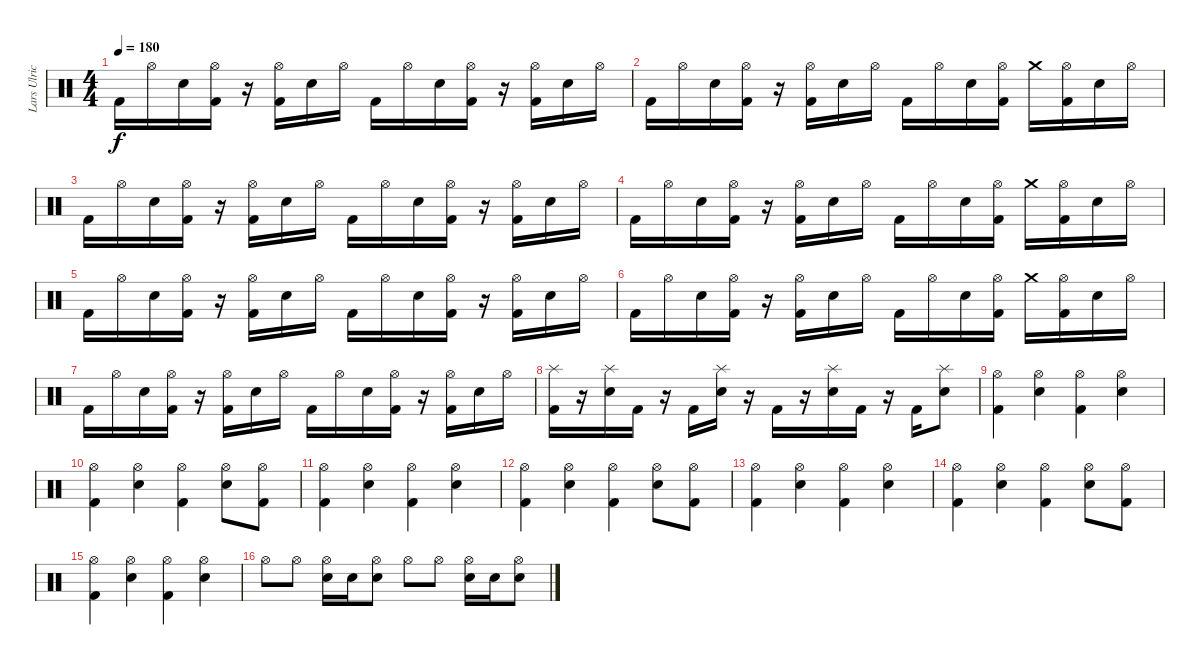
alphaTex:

\track ("Lars Ulrich" "Lars Ulric") {instrument percussion}
\staff {score}
\articulation defaults
\ts (4 4)
\tempo 180
\clef neutral
\ks c "Kick (hit) 2".16{dy f} "Hi-Hat (open)".16 "Electric Snare (hit)".16
("Hi-Hat (open)" "Kick (hit) 2").16 r.16 ("Hi-Hat (open)" "Kick (hit) 2").16 "Electric Snare (hit)".16 "Hi-Hat (open)".16 "Kick (hit) 2".16 "Hi-Hat (open)".16 "Electric Snare (hit)".16 ("Hi-Hat (open)" "Kick (hit) 2").16 r.16 ("Hi-Hat (open)" "Kick (hit) 2").16 "Electric Snare (hit)".16 "Hi-Hat (open)".16 |
"Kick (hit) 2".16 "Hi-Hat (open)".16 "Electric Snare (hit)".16 ("Hi-Hat (open)" "Kick (hit) 2").16 r.16 ("Hi-Hat (open)" "Kick (hit) 2").16 "Electric Snare (hit)".16 "Hi-Hat (open)".16 "Kick (hit) 2".16 "Hi-Hat (open)".16 "Electric Snare (hit)".16 ("Hi-Hat (open)" "Kick (hit) 2").16 "Crash medium (hit)".16 ("Hi-Hat (open)" "Kick (hit) 2").16 "Electric Snare (hit)".16 "Hi-Hat (open)".16 |
"Kick (hit) 2".16 "Hi-Hat (open)".16 "Electric Snare (hit)".16 ("Hi-Hat (open)" "Kick (hit) 2").16 r.16 ("Hi-Hat (open)" "Kick (hit) 2").16 "Electric Snare (hit)".16 "Hi-Hat (open)".16 "Kick (hit) 2".16 "Hi-Hat (open)".16 "Electric Snare (hit)".16 ("Hi-Hat (open)" "Kick (hit) 2").16 r.16 ("Hi-Hat (open)" "Kick (hit) 2").16 "Electric Snare (hit)".16 "Hi-Hat (open)".16 |
"Kick (hit) 2".16 "Hi-Hat (open)".16 "Electric Snare (hit)".16 ("Hi-Hat (open)" "Kick (hit) 2").16 r.16 ("Hi-Hat (open)" "Kick (hit) 2").16 "Electric Snare (hit)".16 "Hi-Hat (open)".16 "Kick (hit) 2".16 "Hi-Hat (open)".16 "Electric Snare (hit)".16 ("Hi-Hat (open)" "Kick (hit) 2").16 "Crash medium (hit)".16 ("Hi-Hat (open)" "Kick (hit) 2").16 "Electric Snare (hit)".16 "Hi-Hat (open)".16 |
"Kick (hit) 2".16 "Hi-Hat (open)".16 "Electric Snare (hit)".16 ("Hi-Hat (open)" "Kick (hit) 2").16 r.16 ("Hi-Hat (open)" "Kick (hit) 2").16 "Electric Snare (hit)".16 "Hi-Hat (open)".16 "Kick (hit) 2".16 "Hi-Hat (open)".16 "Electric Snare (hit)".16 ("Hi-Hat (open)" "Kick (hit) 2").16 r.16 ("Hi-Hat (open)" "Kick (hit) 2").16 "Electric Snare (hit)".16 "Hi-Hat (open)".16 |
"Kick (hit) 2".16 "Hi-Hat (open)".16 "Electric Snare (hit)".16 ("Hi-Hat (open)" "Kick (hit) 2").16 r.16 ("Hi-Hat (open)" "Kick (hit) 2").16 "Electric Snare (hit)".16 "Hi-Hat (open)".16 "Kick (hit) 2".16 "Hi-Hat (open)".16 "Electric Snare (hit)".16 ("Hi-Hat (open)" "Kick (hit) 2").16 "Crash medium (hit)".16 ("Hi-Hat (open)" "Kick (hit) 2").16 "Electric Snare (hit)".16 "Hi-Hat (open)".16 |
"Kick (hit) 2".16 "Hi-Hat (open)".16 "Electric Snare (hit)".16 ("Hi-Hat (open)" "Kick (hit) 2").16 r.16 ("Hi-Hat (open)" "Kick (hit) 2").16 "Electric Snare (hit)".16 "Hi-Hat (open)".16 "Kick (hit) 2".16 "Hi-Hat (open)".16 "Electric Snare (hit)".16 ("Hi-Hat (open)" "Kick (hit) 2").16 r.16 ("Hi-Hat (open)" "Kick (hit) 2").16 "Electric Snare (hit)".16 "Hi-Hat (open)".16 |
("Splash (hit)" "Kick (hit) 2").16 r.16 ("Splash (hit)" "Electric Snare (hit)").16 "Kick (hit) 2".16 r.16 "Kick (hit) 2".16 ("Splash (hit)" "Electric Snare (hit)").16 r.16 "Kick (hit) 2".16 r.16 ("Splash (hit)" "Electric Snare (hit)").16 "Kick (hit) 2".16 r.16 "Kick (hit) 2".16 ("Splash (hit)" "Electric Snare (hit)").8 |
("Hi-Hat (open)" "Kick (hit) 2").4 ("Hi-Hat (open)" "Electric Snare (hit)").4 ("Hi-Hat (open)" "Kick (hit) 2").4 ("Hi-Hat (open)" "Electric Snare (hit)").4 |
("Hi-Hat (open)" "Kick (hit) 2").4 ("Hi-Hat (open)" "Electric Snare (hit)").4 ("Hi-Hat (open)" "Kick (hit) 2").4 ("Hi-Hat (open)" "Electric Snare (hit)").8 ("Hi-Hat (open)" "Kick (hit) 2").8 |
("Hi-Hat (open)" "Kick (hit) 2").4 ("Hi-Hat (open)" "Electric Snare (hit)").4 ("Hi-Hat (open)" "Kick (hit) 2").4 ("Hi-Hat (open)" "Electric Snare (hit)").4 |
("Hi-Hat (open)" "Kick (hit) 2").4 ("Hi-Hat (open)" "Electric Snare (hit)").4 ("Hi-Hat (open)" "Kick (hit) 2").4 ("Hi-Hat (open)" "Electric Snare (hit)").8 ("Hi-Hat (open)" "Kick (hit) 2").8 |
("Hi-Hat (open)" "Kick (hit) 2").4 ("Hi-Hat (open)" "Electric Snare (hit)").4 ("Hi-Hat (open)" "Kick (hit) 2").4 ("Hi-Hat (open)" "Electric Snare (hit)").4 |
("Hi-Hat (open)" "Kick (hit) 2").4 ("Hi-Hat (open)" "Electric Snare (hit)").4 ("Hi-Hat (open)" "Kick (hit) 2").4 ("Hi-Hat (open)" "Electric Snare (hit)").8 ("Hi-Hat (open)" "Kick (hit) 2").8 |
("Hi-Hat (open)" "Kick (hit) 2").4 ("Hi-Hat (open)" "Electric Snare (hit)").4 ("Hi-Hat (open)" "Kick (hit) 2").4 ("Hi-Hat (open)" "Electric Snare (hit)").4 |
"Hi-Hat (open)".8 "Hi-Hat (open)".8 ("Hi-Hat (open)" "Electric Snare (hit)").16 "Electric Snare (hit)".16 ("Hi-Hat (open)" "Electric Snare (hit)").8 "Hi-Hat (open)".8 "Hi-Hat (open)".8 ("Hi-Hat (open)" "Electric Snare (hit)").16 "Electric Snare (hit)".16 ("Hi-Hat (open)" "Electric Snare (hit)").8
